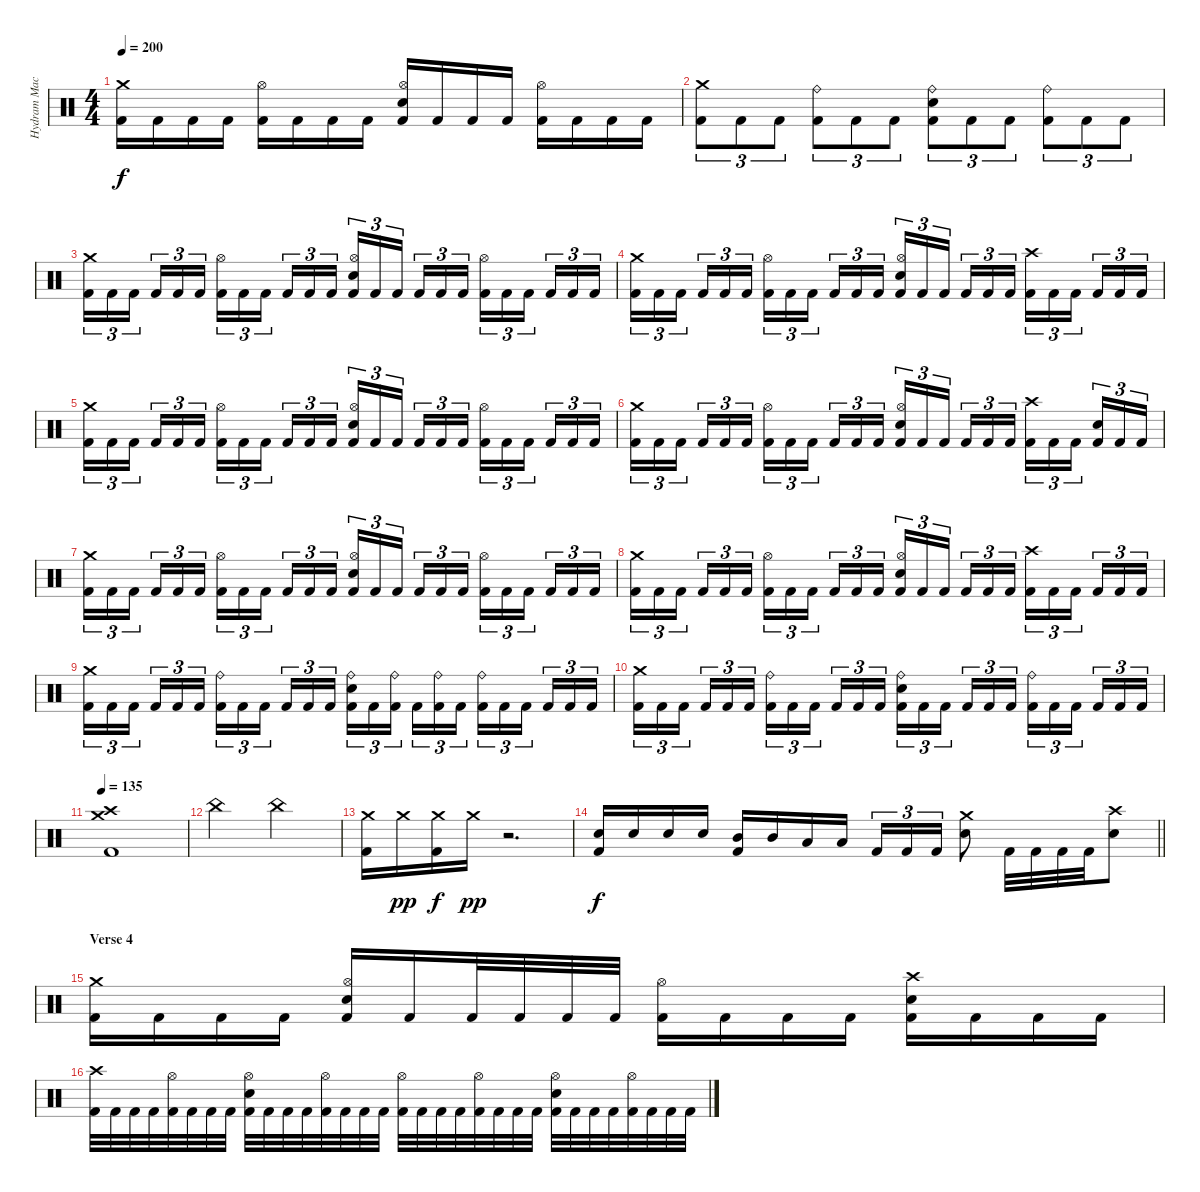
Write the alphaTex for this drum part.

\track ("Hydram Machine" "Hydram Mac") {instrument percussion}
\staff {score}
\articulation defaults
\ts (4 4)
\tempo 200
\clef neutral
\ks c
("Crash medium (hit)" "Kick (hit) 2").16{dy f} "Kick (hit) 2".16 "Kick (hit) 2".16 "Kick (hit) 2".16 ("Hi-Hat (open)" "Kick (hit) 2").16 "Kick (hit) 2".16 "Kick (hit) 2".16 "Kick (hit) 2".16 ("Hi-Hat (open)" "Electric Snare (hit)" "Kick (hit) 2").16 "Kick (hit) 2".16 "Kick (hit) 2".16 "Kick (hit) 2".16 ("Hi-Hat (open)" "Kick (hit) 2").16 "Kick (hit) 2".16 "Kick (hit) 2".16 "Kick (hit) 2".16 |
("Crash medium (hit)" "Kick (hit) 2").8{tu (3 2)} "Kick (hit) 2".8{tu (3 2)} "Kick (hit) 2".8{tu (3 2)} ("Ride (bell)" "Kick (hit) 2").8{tu (3 2)} "Kick (hit) 2".8{tu (3 2)} "Kick (hit) 2".8{tu (3 2)} ("Ride (bell)" "Electric Snare (hit)" "Kick (hit) 2").8{tu (3 2)} "Kick (hit) 2".8{tu (3 2)} "Kick (hit) 2".8{tu (3 2)} ("Ride (bell)" "Kick (hit) 2").8{tu (3 2)} "Kick (hit) 2".8{tu (3 2)} "Kick (hit) 2".8{tu (3 2)} |
("Crash medium (hit)" "Kick (hit) 2").16{tu (3 2)} "Kick (hit) 2".16{tu (3 2)} "Kick (hit) 2".16{tu (3 2) beam splitsecondary} "Kick (hit) 2".16{tu (3 2)} "Kick (hit) 2".16{tu (3 2)} "Kick (hit) 2".16{tu (3 2)} ("Hi-Hat (open)" "Kick (hit) 2").16{tu (3 2)} "Kick (hit) 2".16{tu (3 2)} "Kick (hit) 2".16{tu (3 2) beam splitsecondary} "Kick (hit) 2".16{tu (3 2)} "Kick (hit) 2".16{tu (3 2)} "Kick (hit) 2".16{tu (3 2)} ("Hi-Hat (open)" "Electric Snare (hit)" "Kick (hit) 2").16{tu (3 2)} "Kick (hit) 2".16{tu (3 2)} "Kick (hit) 2".16{tu (3 2) beam splitsecondary} "Kick (hit) 2".16{tu (3 2)} "Kick (hit) 2".16{tu (3 2)} "Kick (hit) 2".16{tu (3 2)} ("Hi-Hat (open)" "Kick (hit) 2").16{tu (3 2)} "Kick (hit) 2".16{tu (3 2)} "Kick (hit) 2".16{tu (3 2) beam splitsecondary} "Kick (hit) 2".16{tu (3 2)} "Kick (hit) 2".16{tu (3 2)} "Kick (hit) 2".16{tu (3 2)} |
("Crash medium (hit)" "Kick (hit) 2").16{tu (3 2)} "Kick (hit) 2".16{tu (3 2)} "Kick (hit) 2".16{tu (3 2) beam splitsecondary} "Kick (hit) 2".16{tu (3 2)} "Kick (hit) 2".16{tu (3 2)} "Kick (hit) 2".16{tu (3 2)} ("Hi-Hat (open)" "Kick (hit) 2").16{tu (3 2)} "Kick (hit) 2".16{tu (3 2)} "Kick (hit) 2".16{tu (3 2) beam splitsecondary} "Kick (hit) 2".16{tu (3 2)} "Kick (hit) 2".16{tu (3 2)} "Kick (hit) 2".16{tu (3 2)} ("Hi-Hat (open)" "Electric Snare (hit)" "Kick (hit) 2").16{tu (3 2)} "Kick (hit) 2".16{tu (3 2)} "Kick (hit) 2".16{tu (3 2) beam splitsecondary} "Kick (hit) 2".16{tu (3 2)} "Kick (hit) 2".16{tu (3 2)} "Kick (hit) 2".16{tu (3 2)} ("Crash high (hit)" "Kick (hit) 2").16{tu (3 2)} "Kick (hit) 2".16{tu (3 2)} "Kick (hit) 2".16{tu (3 2) beam splitsecondary} "Kick (hit) 2".16{tu (3 2)} "Kick (hit) 2".16{tu (3 2)} "Kick (hit) 2".16{tu (3 2)} |
("Crash medium (hit)" "Kick (hit) 2").16{tu (3 2)} "Kick (hit) 2".16{tu (3 2)} "Kick (hit) 2".16{tu (3 2) beam splitsecondary} "Kick (hit) 2".16{tu (3 2)} "Kick (hit) 2".16{tu (3 2)} "Kick (hit) 2".16{tu (3 2)} ("Hi-Hat (open)" "Kick (hit) 2").16{tu (3 2)} "Kick (hit) 2".16{tu (3 2)} "Kick (hit) 2".16{tu (3 2) beam splitsecondary} "Kick (hit) 2".16{tu (3 2)} "Kick (hit) 2".16{tu (3 2)} "Kick (hit) 2".16{tu (3 2)} ("Hi-Hat (open)" "Electric Snare (hit)" "Kick (hit) 2").16{tu (3 2)} "Kick (hit) 2".16{tu (3 2)} "Kick (hit) 2".16{tu (3 2) beam splitsecondary} "Kick (hit) 2".16{tu (3 2)} "Kick (hit) 2".16{tu (3 2)} "Kick (hit) 2".16{tu (3 2)} ("Hi-Hat (open)" "Kick (hit) 2").16{tu (3 2)} "Kick (hit) 2".16{tu (3 2)} "Kick (hit) 2".16{tu (3 2) beam splitsecondary} "Kick (hit) 2".16{tu (3 2)} "Kick (hit) 2".16{tu (3 2)} "Kick (hit) 2".16{tu (3 2)} |
("Crash medium (hit)" "Kick (hit) 2").16{tu (3 2)} "Kick (hit) 2".16{tu (3 2)} "Kick (hit) 2".16{tu (3 2) beam splitsecondary} "Kick (hit) 2".16{tu (3 2)} "Kick (hit) 2".16{tu (3 2)} "Kick (hit) 2".16{tu (3 2)} ("Hi-Hat (open)" "Kick (hit) 2").16{tu (3 2)} "Kick (hit) 2".16{tu (3 2)} "Kick (hit) 2".16{tu (3 2) beam splitsecondary} "Kick (hit) 2".16{tu (3 2)} "Kick (hit) 2".16{tu (3 2)} "Kick (hit) 2".16{tu (3 2)} ("Hi-Hat (open)" "Electric Snare (hit)" "Kick (hit) 2").16{tu (3 2)} "Kick (hit) 2".16{tu (3 2)} "Kick (hit) 2".16{tu (3 2) beam splitsecondary} "Kick (hit) 2".16{tu (3 2)} "Kick (hit) 2".16{tu (3 2)} "Kick (hit) 2".16{tu (3 2)} ("Crash high (hit)" "Kick (hit) 2").16{tu (3 2)} "Kick (hit) 2".16{tu (3 2)} "Kick (hit) 2".16{tu (3 2) beam splitsecondary} ("Electric Snare (hit)" "Kick (hit) 2").16{tu (3 2)} "Kick (hit) 2".16{tu (3 2)} "Kick (hit) 2".16{tu (3 2)} |
("Crash medium (hit)" "Kick (hit) 2").16{tu (3 2)} "Kick (hit) 2".16{tu (3 2)} "Kick (hit) 2".16{tu (3 2) beam splitsecondary} "Kick (hit) 2".16{tu (3 2)} "Kick (hit) 2".16{tu (3 2)} "Kick (hit) 2".16{tu (3 2)} ("Hi-Hat (open)" "Kick (hit) 2").16{tu (3 2)} "Kick (hit) 2".16{tu (3 2)} "Kick (hit) 2".16{tu (3 2) beam splitsecondary} "Kick (hit) 2".16{tu (3 2)} "Kick (hit) 2".16{tu (3 2)} "Kick (hit) 2".16{tu (3 2)} ("Hi-Hat (open)" "Electric Snare (hit)" "Kick (hit) 2").16{tu (3 2)} "Kick (hit) 2".16{tu (3 2)} "Kick (hit) 2".16{tu (3 2) beam splitsecondary} "Kick (hit) 2".16{tu (3 2)} "Kick (hit) 2".16{tu (3 2)} "Kick (hit) 2".16{tu (3 2)} ("Hi-Hat (open)" "Kick (hit) 2").16{tu (3 2)} "Kick (hit) 2".16{tu (3 2)} "Kick (hit) 2".16{tu (3 2) beam splitsecondary} "Kick (hit) 2".16{tu (3 2)} "Kick (hit) 2".16{tu (3 2)} "Kick (hit) 2".16{tu (3 2)} |
("Crash medium (hit)" "Kick (hit) 2").16{tu (3 2)} "Kick (hit) 2".16{tu (3 2)} "Kick (hit) 2".16{tu (3 2) beam splitsecondary} "Kick (hit) 2".16{tu (3 2)} "Kick (hit) 2".16{tu (3 2)} "Kick (hit) 2".16{tu (3 2)} ("Hi-Hat (open)" "Kick (hit) 2").16{tu (3 2)} "Kick (hit) 2".16{tu (3 2)} "Kick (hit) 2".16{tu (3 2) beam splitsecondary} "Kick (hit) 2".16{tu (3 2)} "Kick (hit) 2".16{tu (3 2)} "Kick (hit) 2".16{tu (3 2)} ("Hi-Hat (open)" "Electric Snare (hit)" "Kick (hit) 2").16{tu (3 2)} "Kick (hit) 2".16{tu (3 2)} "Kick (hit) 2".16{tu (3 2) beam splitsecondary} "Kick (hit) 2".16{tu (3 2)} "Kick (hit) 2".16{tu (3 2)} "Kick (hit) 2".16{tu (3 2)} ("Crash high (hit)" "Kick (hit) 2").16{tu (3 2)} "Kick (hit) 2".16{tu (3 2)} "Kick (hit) 2".16{tu (3 2) beam splitsecondary} "Kick (hit) 2".16{tu (3 2)} "Kick (hit) 2".16{tu (3 2)} "Kick (hit) 2".16{tu (3 2)} |
("Crash medium (hit)" "Kick (hit) 2").16{tu (3 2)} "Kick (hit) 2".16{tu (3 2)} "Kick (hit) 2".16{tu (3 2) beam splitsecondary} "Kick (hit) 2".16{tu (3 2)} "Kick (hit) 2".16{tu (3 2)} "Kick (hit) 2".16{tu (3 2)} ("Ride (bell)" "Kick (hit) 2").16{tu (3 2)} "Kick (hit) 2".16{tu (3 2)} "Kick (hit) 2".16{tu (3 2) beam splitsecondary} "Kick (hit) 2".16{tu (3 2)} "Kick (hit) 2".16{tu (3 2)} "Kick (hit) 2".16{tu (3 2)} ("Ride (bell)" "Electric Snare (hit)" "Kick (hit) 2").16{tu (3 2)} "Kick (hit) 2".16{tu (3 2)} ("Ride (bell)" "Kick (hit) 2").16{tu (3 2) beam splitsecondary} "Kick (hit) 2".16{tu (3 2)} ("Ride (bell)" "Kick (hit) 2").16{tu (3 2)} "Kick (hit) 2".16{tu (3 2)} ("Ride (bell)" "Kick (hit) 2").16{tu (3 2)} "Kick (hit) 2".16{tu (3 2)} "Kick (hit) 2".16{tu (3 2) beam splitsecondary} "Kick (hit) 2".16{tu (3 2)} "Kick (hit) 2".16{tu (3 2)} "Kick (hit) 2".16{tu (3 2)} |
("Crash medium (hit)" "Kick (hit) 2").16{tu (3 2)} "Kick (hit) 2".16{tu (3 2)} "Kick (hit) 2".16{tu (3 2) beam splitsecondary} "Kick (hit) 2".16{tu (3 2)} "Kick (hit) 2".16{tu (3 2)} "Kick (hit) 2".16{tu (3 2)} ("Ride (bell)" "Kick (hit) 2").16{tu (3 2)} "Kick (hit) 2".16{tu (3 2)} "Kick (hit) 2".16{tu (3 2) beam splitsecondary} "Kick (hit) 2".16{tu (3 2)} "Kick (hit) 2".16{tu (3 2)} "Kick (hit) 2".16{tu (3 2)} ("Ride (bell)" "Electric Snare (hit)" "Kick (hit) 2").16{tu (3 2)} "Kick (hit) 2".16{tu (3 2)} "Kick (hit) 2".16{tu (3 2) beam splitsecondary} "Kick (hit) 2".16{tu (3 2)} "Kick (hit) 2".16{tu (3 2)} "Kick (hit) 2".16{tu (3 2)} ("Ride (bell)" "Kick (hit) 2").16{tu (3 2)} "Kick (hit) 2".16{tu (3 2)} "Kick (hit) 2".16{tu (3 2) beam splitsecondary} "Kick (hit) 2".16{tu (3 2)} "Kick (hit) 2".16{tu (3 2)} "Kick (hit) 2".16{tu (3 2)} |
\tempo 135
("Crash medium (hit)" "Crash high (hit)" "Kick (hit) 2").1 |
"China (hit)".2 "China (hit)".2 |
("Crash medium (hit)" "Kick (hit) 2").16 "Crash medium (hit)".16{dy pp} ("Crash medium (hit)" "Kick (hit) 2").16{dy f} "Crash medium (hit)".16{dy pp} r.2{d} |
\barLineRight lightlight
("Electric Snare (hit)" "Kick (hit) 2").16{dy f} "Electric Snare (hit)".16 "Electric Snare (hit)".16 "Electric Snare (hit)".16 ("Mid Tom (hit)" "Kick (hit) 2").16 "Mid Tom (hit)".16 "Low Tom (hit)".16 "Low Tom (hit)".16 "Kick (hit) 2".16{tu (3 2)} "Kick (hit) 2".16{tu (3 2)} "Kick (hit) 2".16{tu (3 2)} ("Crash medium (hit)" "Electric Snare (hit)").8 "Kick (hit) 2".32 "Kick (hit) 2".32 "Kick (hit) 2".32 "Kick (hit) 2".32 ("Crash high (hit)" "Electric Snare (hit)").8 |
\section ("" "Verse 4")
("Crash medium (hit)" "Kick (hit) 2").16 "Kick (hit) 2".16 "Kick (hit) 2".16 "Kick (hit) 2".16 ("Hi-Hat (open)" "Electric Snare (hit)" "Kick (hit) 2").16 "Kick (hit) 2".16 "Kick (hit) 2".32 "Kick (hit) 2".32 "Kick (hit) 2".32 "Kick (hit) 2".32 ("Hi-Hat (open)" "Kick (hit) 2").16 "Kick (hit) 2".16 "Kick (hit) 2".16 "Kick (hit) 2".16 ("Crash high (hit)" "Electric Snare (hit)" "Kick (hit) 2").16 "Kick (hit) 2".16 "Kick (hit) 2".16 "Kick (hit) 2".16 |
("Crash high (hit)" "Kick (hit) 2").32 "Kick (hit) 2".32 "Kick (hit) 2".32 "Kick (hit) 2".32 ("Hi-Hat (open)" "Kick (hit) 2").32 "Kick (hit) 2".32 "Kick (hit) 2".32 "Kick (hit) 2".32 ("Hi-Hat (open)" "Electric Snare (hit)" "Kick (hit) 2").32 "Kick (hit) 2".32 "Kick (hit) 2".32 "Kick (hit) 2".32 ("Hi-Hat (open)" "Kick (hit) 2").32 "Kick (hit) 2".32 "Kick (hit) 2".32 "Kick (hit) 2".32 ("Hi-Hat (open)" "Kick (hit) 2").32 "Kick (hit) 2".32 "Kick (hit) 2".32 "Kick (hit) 2".32 ("Hi-Hat (open)" "Kick (hit) 2").32 "Kick (hit) 2".32 "Kick (hit) 2".32 "Kick (hit) 2".32 ("Hi-Hat (open)" "Electric Snare (hit)" "Kick (hit) 2").32 "Kick (hit) 2".32 "Kick (hit) 2".32 "Kick (hit) 2".32 ("Hi-Hat (open)" "Kick (hit) 2").32 "Kick (hit) 2".32 "Kick (hit) 2".32 "Kick (hit) 2".32
